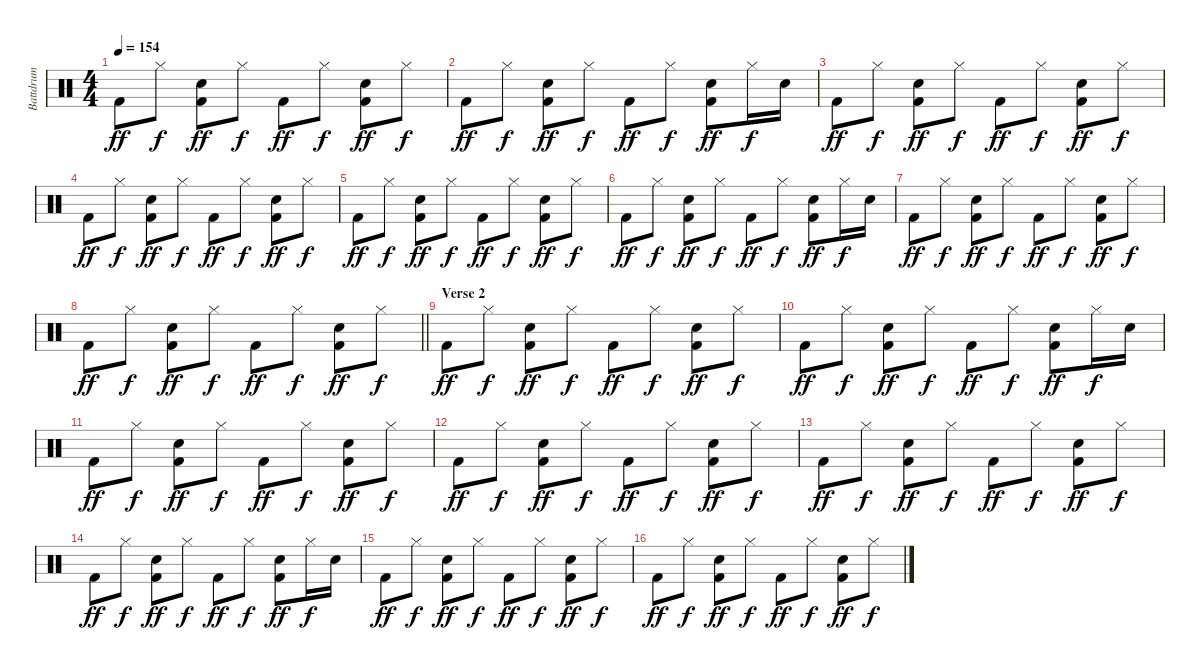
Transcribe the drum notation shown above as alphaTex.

\track ("Battdrum" "Battdrum") {instrument percussion}
\staff {score}
\articulation defaults
\ts (4 4)
\tempo 154
\clef neutral
\ks c "Kick (hit) 2".8{dy ff} "Hi-Hat (closed)".8{dy f}
("Kick (hit) 2" "Electric Snare (hit)").8{dy ff} "Hi-Hat (closed)".8{dy f} "Kick (hit) 2".8{dy ff} "Hi-Hat (closed)".8{dy f} ("Kick (hit) 2" "Electric Snare (hit)").8{dy ff} "Hi-Hat (closed)".8{dy f} |
"Kick (hit) 2".8{dy ff} "Hi-Hat (closed)".8{dy f} ("Kick (hit) 2" "Electric Snare (hit)").8{dy ff} "Hi-Hat (closed)".8{dy f} "Kick (hit) 2".8{dy ff} "Hi-Hat (closed)".8{dy f} ("Kick (hit) 2" "Electric Snare (hit)").8{dy ff} "Hi-Hat (closed)".16{dy f} "Electric Snare (hit)".16 |
"Kick (hit) 2".8{dy ff} "Hi-Hat (closed)".8{dy f} ("Kick (hit) 2" "Electric Snare (hit)").8{dy ff} "Hi-Hat (closed)".8{dy f} "Kick (hit) 2".8{dy ff} "Hi-Hat (closed)".8{dy f} ("Kick (hit) 2" "Electric Snare (hit)").8{dy ff} "Hi-Hat (closed)".8{dy f} |
"Kick (hit) 2".8{dy ff} "Hi-Hat (closed)".8{dy f} ("Kick (hit) 2" "Electric Snare (hit)").8{dy ff} "Hi-Hat (closed)".8{dy f} "Kick (hit) 2".8{dy ff} "Hi-Hat (closed)".8{dy f} ("Kick (hit) 2" "Electric Snare (hit)").8{dy ff} "Hi-Hat (closed)".8{dy f} |
"Kick (hit) 2".8{dy ff} "Hi-Hat (closed)".8{dy f} ("Kick (hit) 2" "Electric Snare (hit)").8{dy ff} "Hi-Hat (closed)".8{dy f} "Kick (hit) 2".8{dy ff} "Hi-Hat (closed)".8{dy f} ("Kick (hit) 2" "Electric Snare (hit)").8{dy ff} "Hi-Hat (closed)".8{dy f} |
"Kick (hit) 2".8{dy ff} "Hi-Hat (closed)".8{dy f} ("Kick (hit) 2" "Electric Snare (hit)").8{dy ff} "Hi-Hat (closed)".8{dy f} "Kick (hit) 2".8{dy ff} "Hi-Hat (closed)".8{dy f} ("Kick (hit) 2" "Electric Snare (hit)").8{dy ff} "Hi-Hat (closed)".16{dy f} "Electric Snare (hit)".16 |
"Kick (hit) 2".8{dy ff} "Hi-Hat (closed)".8{dy f} ("Kick (hit) 2" "Electric Snare (hit)").8{dy ff} "Hi-Hat (closed)".8{dy f} "Kick (hit) 2".8{dy ff} "Hi-Hat (closed)".8{dy f} ("Kick (hit) 2" "Electric Snare (hit)").8{dy ff} "Hi-Hat (closed)".8{dy f} |
\barLineRight lightlight "Kick (hit) 2".8{dy ff} "Hi-Hat (closed)".8{dy f}
("Kick (hit) 2" "Electric Snare (hit)").8{dy ff} "Hi-Hat (closed)".8{dy f} "Kick (hit) 2".8{dy ff} "Hi-Hat (closed)".8{dy f} ("Kick (hit) 2" "Electric Snare (hit)").8{dy ff} "Hi-Hat (closed)".8{dy f} |
\section ("" "Verse 2")
"Kick (hit) 2".8{dy ff} "Hi-Hat (closed)".8{dy f} ("Kick (hit) 2" "Electric Snare (hit)").8{dy ff} "Hi-Hat (closed)".8{dy f} "Kick (hit) 2".8{dy ff} "Hi-Hat (closed)".8{dy f} ("Kick (hit) 2" "Electric Snare (hit)").8{dy ff} "Hi-Hat (closed)".8{dy f} |
"Kick (hit) 2".8{dy ff} "Hi-Hat (closed)".8{dy f} ("Kick (hit) 2" "Electric Snare (hit)").8{dy ff} "Hi-Hat (closed)".8{dy f} "Kick (hit) 2".8{dy ff} "Hi-Hat (closed)".8{dy f} ("Kick (hit) 2" "Electric Snare (hit)").8{dy ff} "Hi-Hat (closed)".16{dy f} "Electric Snare (hit)".16 |
"Kick (hit) 2".8{dy ff} "Hi-Hat (closed)".8{dy f} ("Kick (hit) 2" "Electric Snare (hit)").8{dy ff} "Hi-Hat (closed)".8{dy f} "Kick (hit) 2".8{dy ff} "Hi-Hat (closed)".8{dy f} ("Kick (hit) 2" "Electric Snare (hit)").8{dy ff} "Hi-Hat (closed)".8{dy f} |
"Kick (hit) 2".8{dy ff} "Hi-Hat (closed)".8{dy f} ("Kick (hit) 2" "Electric Snare (hit)").8{dy ff} "Hi-Hat (closed)".8{dy f} "Kick (hit) 2".8{dy ff} "Hi-Hat (closed)".8{dy f} ("Kick (hit) 2" "Electric Snare (hit)").8{dy ff} "Hi-Hat (closed)".8{dy f} |
"Kick (hit) 2".8{dy ff} "Hi-Hat (closed)".8{dy f} ("Kick (hit) 2" "Electric Snare (hit)").8{dy ff} "Hi-Hat (closed)".8{dy f} "Kick (hit) 2".8{dy ff} "Hi-Hat (closed)".8{dy f} ("Kick (hit) 2" "Electric Snare (hit)").8{dy ff} "Hi-Hat (closed)".8{dy f} |
"Kick (hit) 2".8{dy ff} "Hi-Hat (closed)".8{dy f} ("Kick (hit) 2" "Electric Snare (hit)").8{dy ff} "Hi-Hat (closed)".8{dy f} "Kick (hit) 2".8{dy ff} "Hi-Hat (closed)".8{dy f} ("Kick (hit) 2" "Electric Snare (hit)").8{dy ff} "Hi-Hat (closed)".16{dy f} "Electric Snare (hit)".16 |
"Kick (hit) 2".8{dy ff} "Hi-Hat (closed)".8{dy f} ("Kick (hit) 2" "Electric Snare (hit)").8{dy ff} "Hi-Hat (closed)".8{dy f} "Kick (hit) 2".8{dy ff} "Hi-Hat (closed)".8{dy f} ("Kick (hit) 2" "Electric Snare (hit)").8{dy ff} "Hi-Hat (closed)".8{dy f} |
"Kick (hit) 2".8{dy ff} "Hi-Hat (closed)".8{dy f} ("Kick (hit) 2" "Electric Snare (hit)").8{dy ff} "Hi-Hat (closed)".8{dy f} "Kick (hit) 2".8{dy ff} "Hi-Hat (closed)".8{dy f} ("Kick (hit) 2" "Electric Snare (hit)").8{dy ff} "Hi-Hat (closed)".8{dy f}
